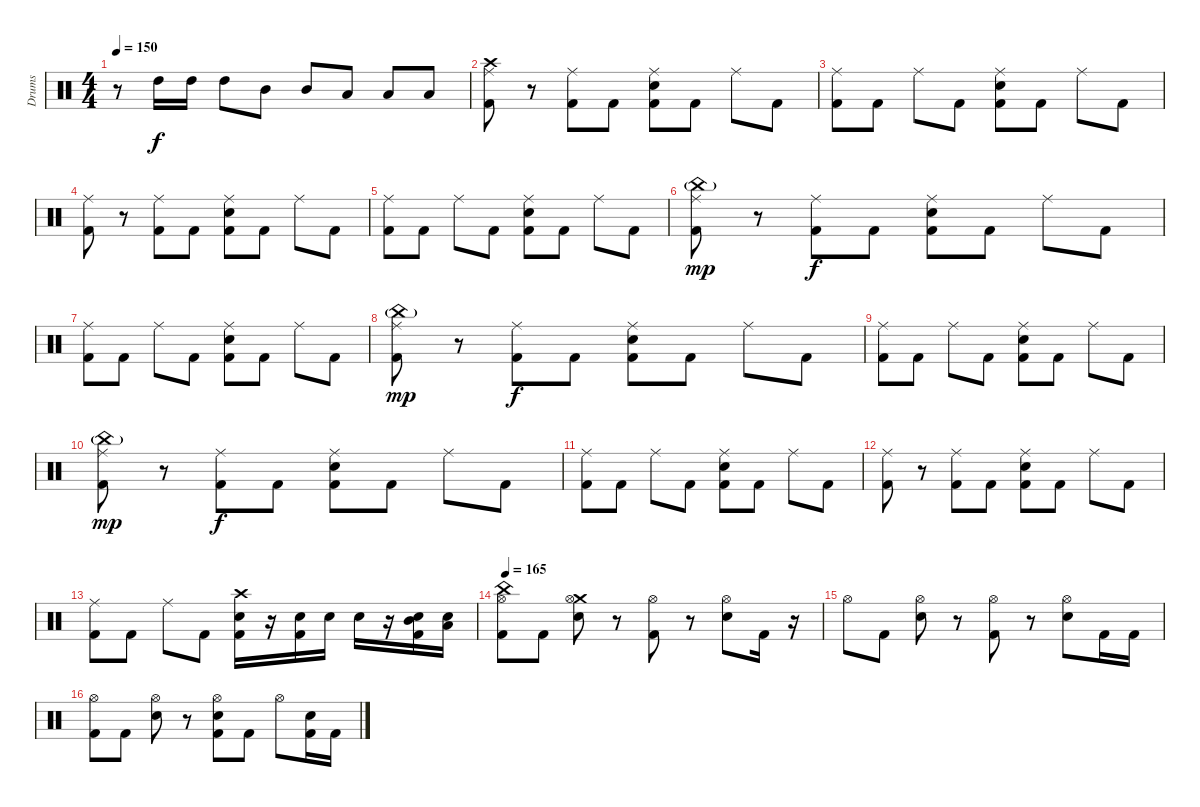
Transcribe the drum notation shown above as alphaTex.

\track ("Drums" "Drums") {instrument percussion}
\staff {score}
\articulation defaults
\ts (4 4)
\tempo 150
\clef neutral
\ks c
r.8{dy f} "High Tom (hit)".16 "High Tom (hit)".16 "High Tom (hit)".8 "Mid Tom (hit)".8 "Mid Tom (hit)".8 "Low Tom (hit)".8 "Low Tom (hit)".8 "Low Tom (hit)".8 |
("Crash high (hit)" "Ride (middle)" "Kick (hit) 2").8 r.8 ("Ride (middle)" "Kick (hit) 2").8 "Kick (hit) 2".8 ("Ride (middle)" "Electric Snare (hit)" "Kick (hit) 2").8 "Kick (hit) 2".8 "Ride (middle)".8 "Kick (hit) 2".8 |
("Ride (middle)" "Kick (hit) 2").8 "Kick (hit) 2".8 "Ride (middle)".8 "Kick (hit) 2".8 ("Ride (middle)" "Electric Snare (hit)" "Kick (hit) 2").8 "Kick (hit) 2".8 "Ride (middle)".8 "Kick (hit) 2".8 |
("Ride (middle)" "Kick (hit) 2").8 r.8 ("Ride (middle)" "Kick (hit) 2").8 "Kick (hit) 2".8 ("Ride (middle)" "Electric Snare (hit)" "Kick (hit) 2").8 "Kick (hit) 2".8 "Ride (middle)".8 "Kick (hit) 2".8 |
("Ride (middle)" "Kick (hit) 2").8 "Kick (hit) 2".8 "Ride (middle)".8 "Kick (hit) 2".8 ("Ride (middle)" "Electric Snare (hit)" "Kick (hit) 2").8 "Kick (hit) 2".8 "Ride (middle)".8 "Kick (hit) 2".8 |
("China (hit)"{g} "Ride (middle)" "Kick (hit) 2").8{dy mp} r.8 ("Ride (middle)" "Kick (hit) 2").8{dy f} "Kick (hit) 2".8 ("Ride (middle)" "Electric Snare (hit)" "Kick (hit) 2").8 "Kick (hit) 2".8 "Ride (middle)".8 "Kick (hit) 2".8 |
("Ride (middle)" "Kick (hit) 2").8 "Kick (hit) 2".8 "Ride (middle)".8 "Kick (hit) 2".8 ("Ride (middle)" "Electric Snare (hit)" "Kick (hit) 2").8 "Kick (hit) 2".8 "Ride (middle)".8 "Kick (hit) 2".8 |
("China (hit)"{g} "Ride (middle)" "Kick (hit) 2").8{dy mp} r.8 ("Ride (middle)" "Kick (hit) 2").8{dy f} "Kick (hit) 2".8 ("Ride (middle)" "Electric Snare (hit)" "Kick (hit) 2").8 "Kick (hit) 2".8 "Ride (middle)".8 "Kick (hit) 2".8 |
("Ride (middle)" "Kick (hit) 2").8 "Kick (hit) 2".8 "Ride (middle)".8 "Kick (hit) 2".8 ("Ride (middle)" "Electric Snare (hit)" "Kick (hit) 2").8 "Kick (hit) 2".8 "Ride (middle)".8 "Kick (hit) 2".8 |
("China (hit)"{g} "Ride (middle)" "Kick (hit) 2").8{dy mp} r.8 ("Ride (middle)" "Kick (hit) 2").8{dy f} "Kick (hit) 2".8 ("Ride (middle)" "Electric Snare (hit)" "Kick (hit) 2").8 "Kick (hit) 2".8 "Ride (middle)".8 "Kick (hit) 2".8 |
("Ride (middle)" "Kick (hit) 2").8 "Kick (hit) 2".8 "Ride (middle)".8 "Kick (hit) 2".8 ("Ride (middle)" "Electric Snare (hit)" "Kick (hit) 2").8 "Kick (hit) 2".8 "Ride (middle)".8 "Kick (hit) 2".8 |
("Ride (middle)" "Kick (hit) 2").8 r.8 ("Ride (middle)" "Kick (hit) 2").8 "Kick (hit) 2".8 ("Ride (middle)" "Electric Snare (hit)" "Kick (hit) 2").8 "Kick (hit) 2".8 "Ride (middle)".8 "Kick (hit) 2".8 |
("Ride (middle)" "Kick (hit) 2").8 "Kick (hit) 2".8 "Ride (middle)".8 "Kick (hit) 2".8 ("Crash high (hit)" "Electric Snare (hit)" "Kick (hit) 2").16 r.16 ("Electric Snare (hit)" "Kick (hit) 2").16 "Electric Snare (hit)".16 "Electric Snare (hit)".16 r.16 ("Mid Tom (hit)" "Electric Snare (hit)" "Kick (hit) 2").16 ("Low Tom (hit)" "Electric Snare (hit)").16 |
\tempo 165
("China (hit)" "Hi-Hat (open)" "Kick (hit) 2").8 "Kick (hit) 2".8 ("Crash medium (hit)" "Hi-Hat (open)" "Electric Snare (hit)").8 r.8 ("Hi-Hat (open)" "Kick (hit) 2").8 r.8 ("Hi-Hat (open)" "Electric Snare (hit)").8 "Kick (hit) 2".16 r.16 |
"Hi-Hat (open)".8 "Kick (hit) 2".8 ("Hi-Hat (open)" "Electric Snare (hit)").8 r.8 ("Hi-Hat (open)" "Kick (hit) 2").8 r.8 ("Hi-Hat (open)" "Electric Snare (hit)").8 "Kick (hit) 2".16 "Kick (hit) 2".16 |
("Hi-Hat (open)" "Kick (hit) 2").8 "Kick (hit) 2".8 ("Hi-Hat (open)" "Electric Snare (hit)").8 r.8 ("Hi-Hat (open)" "Electric Snare (hit)" "Kick (hit) 2").8 "Kick (hit) 2".8 "Hi-Hat (open)".8 ("Electric Snare (hit)" "Kick (hit) 2").16 "Kick (hit) 2".16
